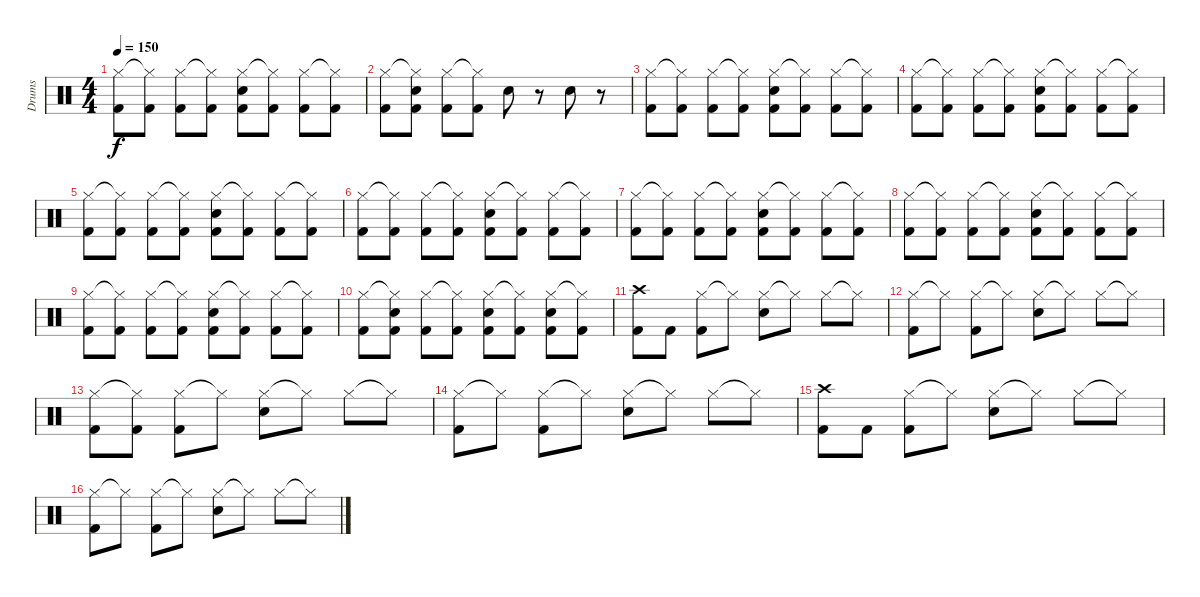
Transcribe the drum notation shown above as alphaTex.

\track ("Drums" "Drums") {instrument percussion}
\staff {score}
\articulation defaults
\ts (4 4)
\tempo 150
\clef neutral
\ks c
("Hi-Hat (closed)" "Kick (hit) 2").8{dy f} ("Hi-Hat (closed)"{t} "Kick (hit) 2").8 ("Hi-Hat (closed)" "Kick (hit) 2").8 ("Hi-Hat (closed)"{t} "Kick (hit) 2").8 ("Hi-Hat (closed)" "Kick (hit) 2" "Snare (hit) 2").8 ("Hi-Hat (closed)"{t} "Kick (hit) 2").8 ("Hi-Hat (closed)" "Kick (hit) 2").8 ("Hi-Hat (closed)"{t} "Kick (hit) 2").8 |
("Hi-Hat (closed)" "Kick (hit) 2").8 ("Hi-Hat (closed)"{t} "Kick (hit) 2" "Snare (hit) 2").8 ("Hi-Hat (closed)" "Kick (hit) 2").8 ("Hi-Hat (closed)"{t} "Kick (hit) 2").8 "Snare (hit) 2".8 r.8 "Snare (hit) 2".8 r.8 |
("Hi-Hat (closed)" "Kick (hit) 2").8 ("Hi-Hat (closed)"{t} "Kick (hit) 2").8 ("Hi-Hat (closed)" "Kick (hit) 2").8 ("Hi-Hat (closed)"{t} "Kick (hit) 2").8 ("Hi-Hat (closed)" "Kick (hit) 2" "Snare (hit) 2").8 ("Hi-Hat (closed)"{t} "Kick (hit) 2").8 ("Hi-Hat (closed)" "Kick (hit) 2").8 ("Hi-Hat (closed)"{t} "Kick (hit) 2").8 |
("Hi-Hat (closed)" "Kick (hit) 2").8 ("Hi-Hat (closed)"{t} "Kick (hit) 2").8 ("Hi-Hat (closed)" "Kick (hit) 2").8 ("Hi-Hat (closed)"{t} "Kick (hit) 2").8 ("Hi-Hat (closed)" "Kick (hit) 2" "Snare (hit) 2").8 ("Hi-Hat (closed)"{t} "Kick (hit) 2").8 ("Hi-Hat (closed)" "Kick (hit) 2").8 ("Hi-Hat (closed)"{t} "Kick (hit) 2").8 |
("Hi-Hat (closed)" "Kick (hit) 2").8 ("Hi-Hat (closed)"{t} "Kick (hit) 2").8 ("Hi-Hat (closed)" "Kick (hit) 2").8 ("Hi-Hat (closed)"{t} "Kick (hit) 2").8 ("Hi-Hat (closed)" "Kick (hit) 2" "Snare (hit) 2").8 ("Hi-Hat (closed)"{t} "Kick (hit) 2").8 ("Hi-Hat (closed)" "Kick (hit) 2").8 ("Hi-Hat (closed)"{t} "Kick (hit) 2").8 |
("Hi-Hat (closed)" "Kick (hit) 2").8 ("Hi-Hat (closed)"{t} "Kick (hit) 2").8 ("Hi-Hat (closed)" "Kick (hit) 2").8 ("Hi-Hat (closed)"{t} "Kick (hit) 2").8 ("Hi-Hat (closed)" "Kick (hit) 2" "Snare (hit) 2").8 ("Hi-Hat (closed)"{t} "Kick (hit) 2").8 ("Hi-Hat (closed)" "Kick (hit) 2").8 ("Hi-Hat (closed)"{t} "Kick (hit) 2").8 |
("Hi-Hat (closed)" "Kick (hit) 2").8 ("Hi-Hat (closed)"{t} "Kick (hit) 2").8 ("Hi-Hat (closed)" "Kick (hit) 2").8 ("Hi-Hat (closed)"{t} "Kick (hit) 2").8 ("Hi-Hat (closed)" "Kick (hit) 2" "Snare (hit) 2").8 ("Hi-Hat (closed)"{t} "Kick (hit) 2").8 ("Hi-Hat (closed)" "Kick (hit) 2").8 ("Hi-Hat (closed)"{t} "Kick (hit) 2").8 |
("Hi-Hat (closed)" "Kick (hit) 2").8 ("Hi-Hat (closed)"{t} "Kick (hit) 2").8 ("Hi-Hat (closed)" "Kick (hit) 2").8 ("Hi-Hat (closed)"{t} "Kick (hit) 2").8 ("Hi-Hat (closed)" "Kick (hit) 2" "Snare (hit) 2").8 ("Hi-Hat (closed)"{t} "Kick (hit) 2").8 ("Hi-Hat (closed)" "Kick (hit) 2").8 ("Hi-Hat (closed)"{t} "Kick (hit) 2").8 |
("Hi-Hat (closed)" "Kick (hit) 2").8 ("Hi-Hat (closed)"{t} "Kick (hit) 2").8 ("Hi-Hat (closed)" "Kick (hit) 2").8 ("Hi-Hat (closed)"{t} "Kick (hit) 2").8 ("Hi-Hat (closed)" "Kick (hit) 2" "Snare (hit) 2").8 ("Hi-Hat (closed)"{t} "Kick (hit) 2").8 ("Hi-Hat (closed)" "Kick (hit) 2").8 ("Hi-Hat (closed)"{t} "Kick (hit) 2").8 |
("Hi-Hat (closed)" "Kick (hit) 2").8 ("Hi-Hat (closed)"{t} "Kick (hit) 2" "Snare (hit) 2").8 ("Hi-Hat (closed)" "Kick (hit) 2").8 ("Hi-Hat (closed)"{t} "Kick (hit) 2").8 ("Hi-Hat (closed)" "Kick (hit) 2" "Snare (hit) 2").8 ("Hi-Hat (closed)"{t} "Kick (hit) 2").8 ("Hi-Hat (closed)" "Kick (hit) 2" "Snare (hit) 2").8 ("Hi-Hat (closed)"{t} "Kick (hit) 2").8 |
("Kick (hit) 2" "Crash high (hit)").8 "Kick (hit) 2".8 ("Hi-Hat (closed)" "Kick (hit) 2").8 "Hi-Hat (closed)"{t}.8 ("Hi-Hat (closed)" "Snare (hit) 2").8 "Hi-Hat (closed)"{t}.8 "Hi-Hat (closed)".8 "Hi-Hat (closed)"{t}.8 |
("Hi-Hat (closed)" "Kick (hit) 2").8 "Hi-Hat (closed)"{t}.8 ("Hi-Hat (closed)" "Kick (hit) 2").8 "Hi-Hat (closed)"{t}.8 ("Hi-Hat (closed)" "Snare (hit) 2").8 "Hi-Hat (closed)"{t}.8 "Hi-Hat (closed)".8 "Hi-Hat (closed)"{t}.8 |
("Hi-Hat (closed)" "Kick (hit) 2").8 ("Hi-Hat (closed)"{t} "Kick (hit) 2").8 ("Hi-Hat (closed)" "Kick (hit) 2").8 "Hi-Hat (closed)"{t}.8 ("Hi-Hat (closed)" "Snare (hit) 2").8 "Hi-Hat (closed)"{t}.8 "Hi-Hat (closed)".8 "Hi-Hat (closed)"{t}.8 |
("Hi-Hat (closed)" "Kick (hit) 2").8 "Hi-Hat (closed)"{t}.8 ("Hi-Hat (closed)" "Kick (hit) 2").8 "Hi-Hat (closed)"{t}.8 ("Hi-Hat (closed)" "Snare (hit) 2").8 "Hi-Hat (closed)"{t}.8 "Hi-Hat (closed)".8 "Hi-Hat (closed)"{t}.8 |
("Kick (hit) 2" "Crash high (hit)").8 "Kick (hit) 2".8 ("Hi-Hat (closed)" "Kick (hit) 2").8 "Hi-Hat (closed)"{t}.8 ("Hi-Hat (closed)" "Snare (hit) 2").8 "Hi-Hat (closed)"{t}.8 "Hi-Hat (closed)".8 "Hi-Hat (closed)"{t}.8 |
("Hi-Hat (closed)" "Kick (hit) 2").8 "Hi-Hat (closed)"{t}.8 ("Hi-Hat (closed)" "Kick (hit) 2").8 "Hi-Hat (closed)"{t}.8 ("Hi-Hat (closed)" "Snare (hit) 2").8 "Hi-Hat (closed)"{t}.8 "Hi-Hat (closed)".8 "Hi-Hat (closed)"{t}.8
